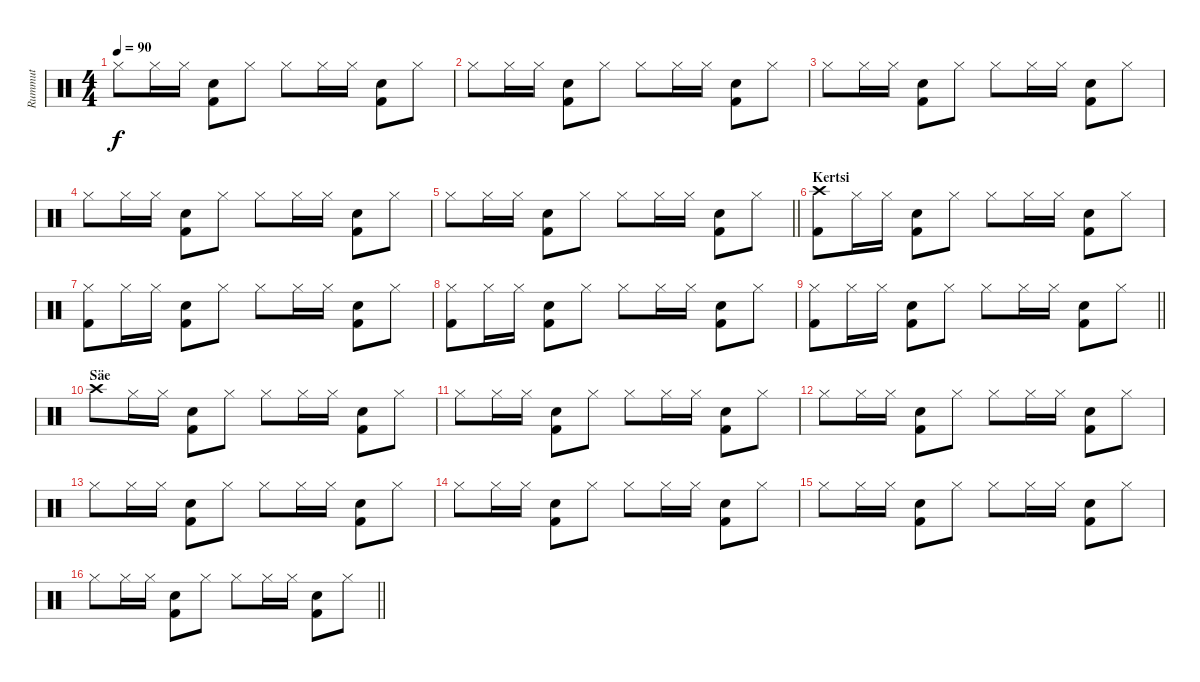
\track ("Rummut" "Rummut") {instrument percussion}
\staff {score}
\articulation defaults
\ts (4 4)
\tempo 90
\clef neutral
\ks c "Hi-Hat (closed)".8{dy f} "Hi-Hat (closed)".16 "Hi-Hat (closed)".16
("Snare (hit) 2" "Kick (hit) 2").8 "Hi-Hat (closed)".8 "Hi-Hat (closed)".8 "Hi-Hat (closed)".16 "Hi-Hat (closed)".16 ("Snare (hit) 2" "Kick (hit) 2").8 "Hi-Hat (closed)".8 |
"Hi-Hat (closed)".8 "Hi-Hat (closed)".16 "Hi-Hat (closed)".16 ("Snare (hit) 2" "Kick (hit) 2").8 "Hi-Hat (closed)".8 "Hi-Hat (closed)".8 "Hi-Hat (closed)".16 "Hi-Hat (closed)".16 ("Snare (hit) 2" "Kick (hit) 2").8 "Hi-Hat (closed)".8 |
"Hi-Hat (closed)".8 "Hi-Hat (closed)".16 "Hi-Hat (closed)".16 ("Snare (hit) 2" "Kick (hit) 2").8 "Hi-Hat (closed)".8 "Hi-Hat (closed)".8 "Hi-Hat (closed)".16 "Hi-Hat (closed)".16 ("Snare (hit) 2" "Kick (hit) 2").8 "Hi-Hat (closed)".8 |
"Hi-Hat (closed)".8 "Hi-Hat (closed)".16 "Hi-Hat (closed)".16 ("Snare (hit) 2" "Kick (hit) 2").8 "Hi-Hat (closed)".8 "Hi-Hat (closed)".8 "Hi-Hat (closed)".16 "Hi-Hat (closed)".16 ("Snare (hit) 2" "Kick (hit) 2").8 "Hi-Hat (closed)".8 |
\barLineRight lightlight "Hi-Hat (closed)".8 "Hi-Hat (closed)".16 "Hi-Hat (closed)".16
("Snare (hit) 2" "Kick (hit) 2").8 "Hi-Hat (closed)".8 "Hi-Hat (closed)".8 "Hi-Hat (closed)".16 "Hi-Hat (closed)".16 ("Snare (hit) 2" "Kick (hit) 2").8 "Hi-Hat (closed)".8 |
\section ("" "Kertsi")
("Crash high (hit)" "Kick (hit) 2").8 "Hi-Hat (closed)".16 "Hi-Hat (closed)".16 ("Snare (hit) 2" "Kick (hit) 2").8 "Hi-Hat (closed)".8 "Hi-Hat (closed)".8 "Hi-Hat (closed)".16 "Hi-Hat (closed)".16 ("Snare (hit) 2" "Kick (hit) 2").8 "Hi-Hat (closed)".8 |
("Hi-Hat (closed)" "Kick (hit) 2").8 "Hi-Hat (closed)".16 "Hi-Hat (closed)".16 ("Snare (hit) 2" "Kick (hit) 2").8 "Hi-Hat (closed)".8 "Hi-Hat (closed)".8 "Hi-Hat (closed)".16 "Hi-Hat (closed)".16 ("Snare (hit) 2" "Kick (hit) 2").8 "Hi-Hat (closed)".8 |
("Hi-Hat (closed)" "Kick (hit) 2").8 "Hi-Hat (closed)".16 "Hi-Hat (closed)".16 ("Snare (hit) 2" "Kick (hit) 2").8 "Hi-Hat (closed)".8 "Hi-Hat (closed)".8 "Hi-Hat (closed)".16 "Hi-Hat (closed)".16 ("Snare (hit) 2" "Kick (hit) 2").8 "Hi-Hat (closed)".8 |
\barLineRight lightlight
("Hi-Hat (closed)" "Kick (hit) 2").8 "Hi-Hat (closed)".16 "Hi-Hat (closed)".16 ("Snare (hit) 2" "Kick (hit) 2").8 "Hi-Hat (closed)".8 "Hi-Hat (closed)".8 "Hi-Hat (closed)".16 "Hi-Hat (closed)".16 ("Snare (hit) 2" "Kick (hit) 2").8 "Hi-Hat (closed)".8 |
\section ("" "Säe")
"Crash high (hit)".8 "Hi-Hat (closed)".16 "Hi-Hat (closed)".16 ("Snare (hit) 2" "Kick (hit) 2").8 "Hi-Hat (closed)".8 "Hi-Hat (closed)".8 "Hi-Hat (closed)".16 "Hi-Hat (closed)".16 ("Snare (hit) 2" "Kick (hit) 2").8 "Hi-Hat (closed)".8 |
"Hi-Hat (closed)".8 "Hi-Hat (closed)".16 "Hi-Hat (closed)".16 ("Snare (hit) 2" "Kick (hit) 2").8 "Hi-Hat (closed)".8 "Hi-Hat (closed)".8 "Hi-Hat (closed)".16 "Hi-Hat (closed)".16 ("Snare (hit) 2" "Kick (hit) 2").8 "Hi-Hat (closed)".8 |
"Hi-Hat (closed)".8 "Hi-Hat (closed)".16 "Hi-Hat (closed)".16 ("Snare (hit) 2" "Kick (hit) 2").8 "Hi-Hat (closed)".8 "Hi-Hat (closed)".8 "Hi-Hat (closed)".16 "Hi-Hat (closed)".16 ("Snare (hit) 2" "Kick (hit) 2").8 "Hi-Hat (closed)".8 |
"Hi-Hat (closed)".8 "Hi-Hat (closed)".16 "Hi-Hat (closed)".16 ("Snare (hit) 2" "Kick (hit) 2").8 "Hi-Hat (closed)".8 "Hi-Hat (closed)".8 "Hi-Hat (closed)".16 "Hi-Hat (closed)".16 ("Snare (hit) 2" "Kick (hit) 2").8 "Hi-Hat (closed)".8 |
"Hi-Hat (closed)".8 "Hi-Hat (closed)".16 "Hi-Hat (closed)".16 ("Snare (hit) 2" "Kick (hit) 2").8 "Hi-Hat (closed)".8 "Hi-Hat (closed)".8 "Hi-Hat (closed)".16 "Hi-Hat (closed)".16 ("Snare (hit) 2" "Kick (hit) 2").8 "Hi-Hat (closed)".8 |
"Hi-Hat (closed)".8 "Hi-Hat (closed)".16 "Hi-Hat (closed)".16 ("Snare (hit) 2" "Kick (hit) 2").8 "Hi-Hat (closed)".8 "Hi-Hat (closed)".8 "Hi-Hat (closed)".16 "Hi-Hat (closed)".16 ("Snare (hit) 2" "Kick (hit) 2").8 "Hi-Hat (closed)".8 |
\barLineRight lightlight "Hi-Hat (closed)".8 "Hi-Hat (closed)".16 "Hi-Hat (closed)".16
("Snare (hit) 2" "Kick (hit) 2").8 "Hi-Hat (closed)".8 "Hi-Hat (closed)".8 "Hi-Hat (closed)".16 "Hi-Hat (closed)".16 ("Snare (hit) 2" "Kick (hit) 2").8 "Hi-Hat (closed)".8
